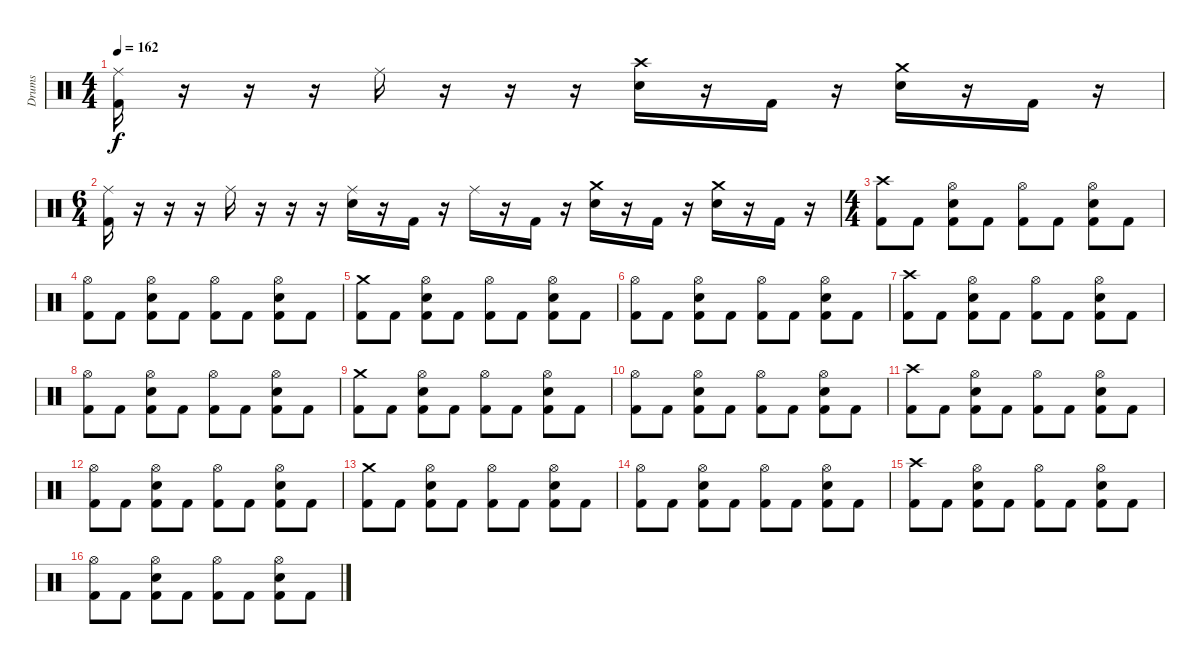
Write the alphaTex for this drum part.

\track ("Drums" "Drums") {instrument percussion}
\staff {score}
\articulation defaults
\ts (4 4)
\tempo 162
\clef neutral
\ks c
("Ride (middle)" "Kick (hit) 2").16{dy f} r.16 r.16 r.16 "Ride (middle)".16 r.16 r.16 r.16 ("Crash high (hit)" "Snare (hit) 2").16 r.16 "Kick (hit) 2".16 r.16 ("Crash medium (hit)" "Snare (hit) 2").16 r.16 "Kick (hit) 2".16 r.16 |
\ts (6 4)
("Ride (middle)" "Kick (hit) 2").16 r.16 r.16 r.16 "Ride (middle)".16 r.16 r.16 r.16 ("Ride (middle)" "Snare (hit) 2").16 r.16 "Kick (hit) 2".16 r.16 "Ride (middle)".16 r.16 "Kick (hit) 2".16 r.16 ("Crash medium (hit)" "Snare (hit) 2").16 r.16 "Kick (hit) 2".16 r.16 ("Crash medium (hit)" "Snare (hit) 2").16 r.16 "Kick (hit) 2".16 r.16 |
\ts (4 4)
("Crash high (hit)" "Kick (hit) 2").8 "Kick (hit) 2".8 ("Hi-Hat (open)" "Snare (hit) 2" "Kick (hit) 2").8 "Kick (hit) 2".8 ("Hi-Hat (open)" "Kick (hit) 2").8 "Kick (hit) 2".8 ("Hi-Hat (open)" "Snare (hit) 2" "Kick (hit) 2").8 "Kick (hit) 2".8 |
("Hi-Hat (open)" "Kick (hit) 2").8 "Kick (hit) 2".8 ("Hi-Hat (open)" "Snare (hit) 2" "Kick (hit) 2").8 "Kick (hit) 2".8 ("Hi-Hat (open)" "Kick (hit) 2").8 "Kick (hit) 2".8 ("Hi-Hat (open)" "Snare (hit) 2" "Kick (hit) 2").8 "Kick (hit) 2".8 |
("Crash medium (hit)" "Kick (hit) 2").8 "Kick (hit) 2".8 ("Hi-Hat (open)" "Snare (hit) 2" "Kick (hit) 2").8 "Kick (hit) 2".8 ("Hi-Hat (open)" "Kick (hit) 2").8 "Kick (hit) 2".8 ("Hi-Hat (open)" "Snare (hit) 2" "Kick (hit) 2").8 "Kick (hit) 2".8 |
("Hi-Hat (open)" "Kick (hit) 2").8 "Kick (hit) 2".8 ("Hi-Hat (open)" "Snare (hit) 2" "Kick (hit) 2").8 "Kick (hit) 2".8 ("Hi-Hat (open)" "Kick (hit) 2").8 "Kick (hit) 2".8 ("Hi-Hat (open)" "Snare (hit) 2" "Kick (hit) 2").8 "Kick (hit) 2".8 |
("Crash high (hit)" "Kick (hit) 2").8 "Kick (hit) 2".8 ("Hi-Hat (open)" "Snare (hit) 2" "Kick (hit) 2").8 "Kick (hit) 2".8 ("Hi-Hat (open)" "Kick (hit) 2").8 "Kick (hit) 2".8 ("Hi-Hat (open)" "Snare (hit) 2" "Kick (hit) 2").8 "Kick (hit) 2".8 |
("Hi-Hat (open)" "Kick (hit) 2").8 "Kick (hit) 2".8 ("Hi-Hat (open)" "Snare (hit) 2" "Kick (hit) 2").8 "Kick (hit) 2".8 ("Hi-Hat (open)" "Kick (hit) 2").8 "Kick (hit) 2".8 ("Hi-Hat (open)" "Snare (hit) 2" "Kick (hit) 2").8 "Kick (hit) 2".8 |
("Crash medium (hit)" "Kick (hit) 2").8 "Kick (hit) 2".8 ("Hi-Hat (open)" "Snare (hit) 2" "Kick (hit) 2").8 "Kick (hit) 2".8 ("Hi-Hat (open)" "Kick (hit) 2").8 "Kick (hit) 2".8 ("Hi-Hat (open)" "Snare (hit) 2" "Kick (hit) 2").8 "Kick (hit) 2".8 |
("Hi-Hat (open)" "Kick (hit) 2").8 "Kick (hit) 2".8 ("Hi-Hat (open)" "Snare (hit) 2" "Kick (hit) 2").8 "Kick (hit) 2".8 ("Hi-Hat (open)" "Kick (hit) 2").8 "Kick (hit) 2".8 ("Hi-Hat (open)" "Snare (hit) 2" "Kick (hit) 2").8 "Kick (hit) 2".8 |
("Crash high (hit)" "Kick (hit) 2").8 "Kick (hit) 2".8 ("Hi-Hat (open)" "Snare (hit) 2" "Kick (hit) 2").8 "Kick (hit) 2".8 ("Hi-Hat (open)" "Kick (hit) 2").8 "Kick (hit) 2".8 ("Hi-Hat (open)" "Snare (hit) 2" "Kick (hit) 2").8 "Kick (hit) 2".8 |
("Hi-Hat (open)" "Kick (hit) 2").8 "Kick (hit) 2".8 ("Hi-Hat (open)" "Snare (hit) 2" "Kick (hit) 2").8 "Kick (hit) 2".8 ("Hi-Hat (open)" "Kick (hit) 2").8 "Kick (hit) 2".8 ("Hi-Hat (open)" "Snare (hit) 2" "Kick (hit) 2").8 "Kick (hit) 2".8 |
("Crash medium (hit)" "Kick (hit) 2").8 "Kick (hit) 2".8 ("Hi-Hat (open)" "Snare (hit) 2" "Kick (hit) 2").8 "Kick (hit) 2".8 ("Hi-Hat (open)" "Kick (hit) 2").8 "Kick (hit) 2".8 ("Hi-Hat (open)" "Snare (hit) 2" "Kick (hit) 2").8 "Kick (hit) 2".8 |
("Hi-Hat (open)" "Kick (hit) 2").8 "Kick (hit) 2".8 ("Hi-Hat (open)" "Snare (hit) 2" "Kick (hit) 2").8 "Kick (hit) 2".8 ("Hi-Hat (open)" "Kick (hit) 2").8 "Kick (hit) 2".8 ("Hi-Hat (open)" "Snare (hit) 2" "Kick (hit) 2").8 "Kick (hit) 2".8 |
("Crash high (hit)" "Kick (hit) 2").8 "Kick (hit) 2".8 ("Hi-Hat (open)" "Snare (hit) 2" "Kick (hit) 2").8 "Kick (hit) 2".8 ("Hi-Hat (open)" "Kick (hit) 2").8 "Kick (hit) 2".8 ("Hi-Hat (open)" "Snare (hit) 2" "Kick (hit) 2").8 "Kick (hit) 2".8 |
("Hi-Hat (open)" "Kick (hit) 2").8 "Kick (hit) 2".8 ("Hi-Hat (open)" "Snare (hit) 2" "Kick (hit) 2").8 "Kick (hit) 2".8 ("Hi-Hat (open)" "Kick (hit) 2").8 "Kick (hit) 2".8 ("Hi-Hat (open)" "Snare (hit) 2" "Kick (hit) 2").8 "Kick (hit) 2".8
